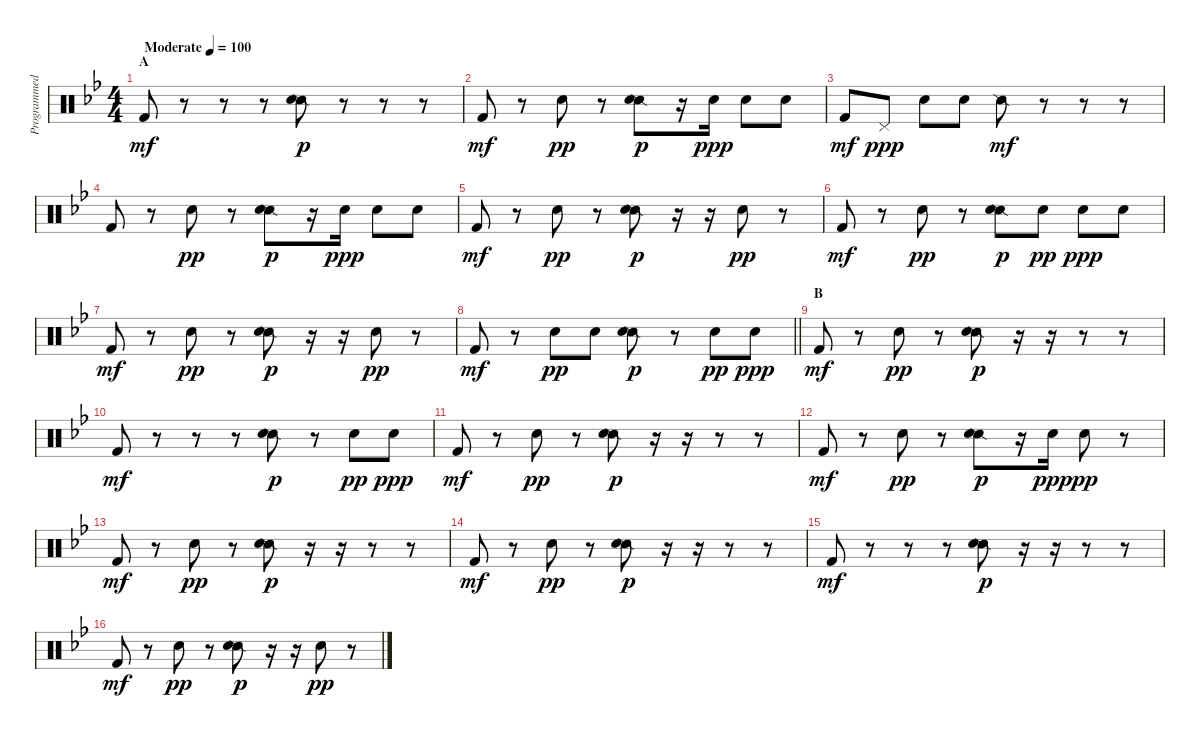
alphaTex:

\track ("Programmed Drums" "Programmed") {instrument percussion}
\staff {score}
\articulation defaults
\ts (4 4)
\section ("" "A")
\tempo (100 "Moderate")
\clef neutral
\ks bb "Kick (hit) 2".8{dy mf}
r.8 r.8 r.8 ("Snare (side stick) 2" "Snare (hit) 2").8{dy p} r.8 r.8 r.8 |
"Kick (hit) 2".8{dy mf} r.8 "Snare (hit) 2".8{dy pp} r.8 ("Snare (side stick) 2" "Snare (hit) 2").8{dy p} r.16 "Snare (hit) 2".16{dy ppp} "Snare (hit) 2".8 "Snare (hit) 2".8 |
"Kick (hit) 2".8{dy mf} "Pedal Hi-Hat (hit)".8{dy ppp} "Snare (hit) 2".8 "Snare (hit) 2".8 "Snare (side stick) 2".8{dy mf} r.8 r.8 r.8 |
"Kick (hit) 2".8 r.8 "Snare (hit) 2".8{dy pp} r.8 ("Snare (side stick) 2" "Snare (hit) 2").8{dy p} r.16 "Snare (hit) 2".16{dy ppp} "Snare (hit) 2".8 "Snare (hit) 2".8 |
"Kick (hit) 2".8{dy mf} r.8 "Snare (hit) 2".8{dy pp} r.8 ("Snare (side stick) 2" "Snare (hit) 2").8{dy p} r.16 r.16 "Snare (hit) 2".8{dy pp} r.8 |
"Kick (hit) 2".8{dy mf} r.8 "Snare (hit) 2".8{dy pp} r.8 ("Snare (side stick) 2" "Snare (hit) 2").8{dy p} "Snare (hit) 2".8{dy pp} "Snare (hit) 2".8{dy ppp} "Snare (hit) 2".8 |
"Kick (hit) 2".8{dy mf} r.8 "Snare (hit) 2".8{dy pp} r.8 ("Snare (side stick) 2" "Snare (hit) 2").8{dy p} r.16 r.16 "Snare (hit) 2".8{dy pp} r.8 |
\barLineRight lightlight "Kick (hit) 2".8{dy mf}
r.8 "Snare (hit) 2".8{dy pp} "Snare (hit) 2".8 ("Snare (side stick) 2" "Snare (hit) 2").8{dy p} r.8 "Snare (hit) 2".8{dy pp} "Snare (hit) 2".8{dy ppp} |
\section ("" "B")
"Kick (hit) 2".8{dy mf} r.8 "Snare (hit) 2".8{dy pp} r.8 ("Snare (side stick) 2" "Snare (hit) 2").8{dy p} r.16 r.16 r.8 r.8 |
"Kick (hit) 2".8{dy mf} r.8 r.8 r.8 ("Snare (side stick) 2" "Snare (hit) 2").8{dy p} r.8 "Snare (hit) 2".8{dy pp} "Snare (hit) 2".8{dy ppp} |
"Kick (hit) 2".8{dy mf} r.8 "Snare (hit) 2".8{dy pp} r.8 ("Snare (side stick) 2" "Snare (hit) 2").8{dy p} r.16 r.16 r.8 r.8 |
"Kick (hit) 2".8{dy mf} r.8 "Snare (hit) 2".8{dy pp} r.8 ("Snare (side stick) 2" "Snare (hit) 2").8{dy p} r.16 "Snare (hit) 2".16{dy ppp} "Snare (hit) 2".8{dy pp} r.8 |
"Kick (hit) 2".8{dy mf} r.8 "Snare (hit) 2".8{dy pp} r.8 ("Snare (side stick) 2" "Snare (hit) 2").8{dy p} r.16 r.16 r.8 r.8 |
"Kick (hit) 2".8{dy mf} r.8 "Snare (hit) 2".8{dy pp} r.8 ("Snare (side stick) 2" "Snare (hit) 2").8{dy p} r.16 r.16 r.8 r.8 |
"Kick (hit) 2".8{dy mf} r.8 r.8 r.8 ("Snare (side stick) 2" "Snare (hit) 2").8{dy p} r.16 r.16 r.8 r.8 |
"Kick (hit) 2".8{dy mf} r.8 "Snare (hit) 2".8{dy pp} r.8 ("Snare (side stick) 2" "Snare (hit) 2").8{dy p} r.16 r.16 "Snare (hit) 2".8{dy pp} r.8
